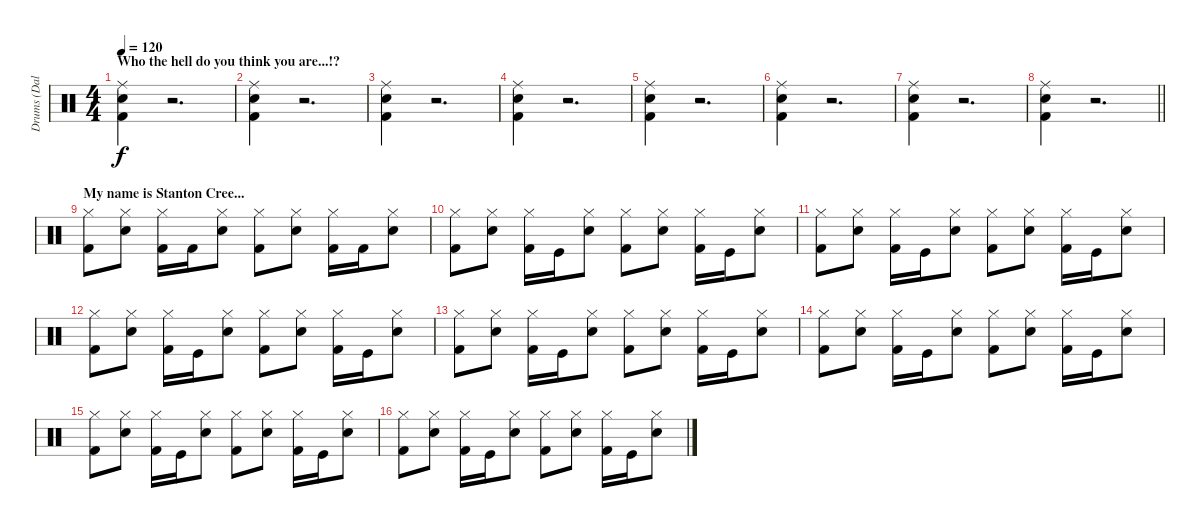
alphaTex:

\track ("Drums (Dalton Black)" "Drums (Dal") {instrument percussion}
\staff {score}
\articulation defaults
\ts (4 4)
\section ("" "Who the hell do you think you are...!?")
\tempo 120
\clef neutral
\ks c
("Ride (middle)" "Electric Snare (hit)" "Kick (hit) 2").4{dy f} r.2{d} |
("Ride (middle)" "Electric Snare (hit)" "Kick (hit) 2").4 r.2{d} |
("Ride (middle)" "Electric Snare (hit)" "Kick (hit) 2").4 r.2{d} |
("Ride (middle)" "Electric Snare (hit)" "Kick (hit) 2").4 r.2{d} |
("Ride (middle)" "Electric Snare (hit)" "Kick (hit) 2").4 r.2{d} |
("Ride (middle)" "Electric Snare (hit)" "Kick (hit) 2").4 r.2{d} |
("Ride (middle)" "Electric Snare (hit)" "Kick (hit) 2").4 r.2{d} |
\barLineRight lightlight
("Ride (middle)" "Electric Snare (hit)" "Kick (hit) 2").4 r.2{d} |
\section ("" "My name is Stanton Cree...")
("Hi-Hat (closed)" "Kick (hit) 2").8 ("Hi-Hat (closed)" "Electric Snare (hit)").8 ("Hi-Hat (closed)" "Kick (hit) 2").16 "Kick (hit) 2".16 ("Hi-Hat (closed)" "Electric Snare (hit)").8 ("Hi-Hat (closed)" "Kick (hit) 2").8 ("Hi-Hat (closed)" "Electric Snare (hit)").8 ("Hi-Hat (closed)" "Kick (hit) 2").16 "Kick (hit) 2".16 ("Hi-Hat (closed)" "Electric Snare (hit)").8 |
("Hi-Hat (closed)" "Kick (hit) 2").8 ("Hi-Hat (closed)" "Electric Snare (hit)").8 ("Hi-Hat (closed)" "Kick (hit) 2").16 "Kick (hit)".16 ("Hi-Hat (closed)" "Electric Snare (hit)").8 ("Hi-Hat (closed)" "Kick (hit) 2").8 ("Hi-Hat (closed)" "Electric Snare (hit)").8 ("Hi-Hat (closed)" "Kick (hit) 2").16 "Kick (hit)".16 ("Hi-Hat (closed)" "Electric Snare (hit)").8 |
("Hi-Hat (closed)" "Kick (hit) 2").8 ("Hi-Hat (closed)" "Electric Snare (hit)").8 ("Hi-Hat (closed)" "Kick (hit) 2").16 "Kick (hit)".16 ("Hi-Hat (closed)" "Electric Snare (hit)").8 ("Hi-Hat (closed)" "Kick (hit) 2").8 ("Hi-Hat (closed)" "Electric Snare (hit)").8 ("Hi-Hat (closed)" "Kick (hit) 2").16 "Kick (hit)".16 ("Hi-Hat (closed)" "Electric Snare (hit)").8 |
("Hi-Hat (closed)" "Kick (hit) 2").8 ("Hi-Hat (closed)" "Electric Snare (hit)").8 ("Hi-Hat (closed)" "Kick (hit) 2").16 "Kick (hit)".16 ("Hi-Hat (closed)" "Electric Snare (hit)").8 ("Hi-Hat (closed)" "Kick (hit) 2").8 ("Hi-Hat (closed)" "Electric Snare (hit)").8 ("Hi-Hat (closed)" "Kick (hit) 2").16 "Kick (hit)".16 ("Hi-Hat (closed)" "Electric Snare (hit)").8 |
("Hi-Hat (closed)" "Kick (hit) 2").8 ("Hi-Hat (closed)" "Electric Snare (hit)").8 ("Hi-Hat (closed)" "Kick (hit) 2").16 "Kick (hit)".16 ("Hi-Hat (closed)" "Electric Snare (hit)").8 ("Hi-Hat (closed)" "Kick (hit) 2").8 ("Hi-Hat (closed)" "Electric Snare (hit)").8 ("Hi-Hat (closed)" "Kick (hit) 2").16 "Kick (hit)".16 ("Hi-Hat (closed)" "Electric Snare (hit)").8 |
("Hi-Hat (closed)" "Kick (hit) 2").8 ("Hi-Hat (closed)" "Electric Snare (hit)").8 ("Hi-Hat (closed)" "Kick (hit) 2").16 "Kick (hit)".16 ("Hi-Hat (closed)" "Electric Snare (hit)").8 ("Hi-Hat (closed)" "Kick (hit) 2").8 ("Hi-Hat (closed)" "Electric Snare (hit)").8 ("Hi-Hat (closed)" "Kick (hit) 2").16 "Kick (hit)".16 ("Hi-Hat (closed)" "Electric Snare (hit)").8 |
("Hi-Hat (closed)" "Kick (hit) 2").8 ("Hi-Hat (closed)" "Electric Snare (hit)").8 ("Hi-Hat (closed)" "Kick (hit) 2").16 "Kick (hit)".16 ("Hi-Hat (closed)" "Electric Snare (hit)").8 ("Hi-Hat (closed)" "Kick (hit) 2").8 ("Hi-Hat (closed)" "Electric Snare (hit)").8 ("Hi-Hat (closed)" "Kick (hit) 2").16 "Kick (hit)".16 ("Hi-Hat (closed)" "Electric Snare (hit)").8 |
("Hi-Hat (closed)" "Kick (hit) 2").8 ("Hi-Hat (closed)" "Electric Snare (hit)").8 ("Hi-Hat (closed)" "Kick (hit) 2").16 "Kick (hit)".16 ("Hi-Hat (closed)" "Electric Snare (hit)").8 ("Hi-Hat (closed)" "Kick (hit) 2").8 ("Hi-Hat (closed)" "Electric Snare (hit)").8 ("Hi-Hat (closed)" "Kick (hit) 2").16 "Kick (hit)".16 ("Hi-Hat (closed)" "Electric Snare (hit)").8
